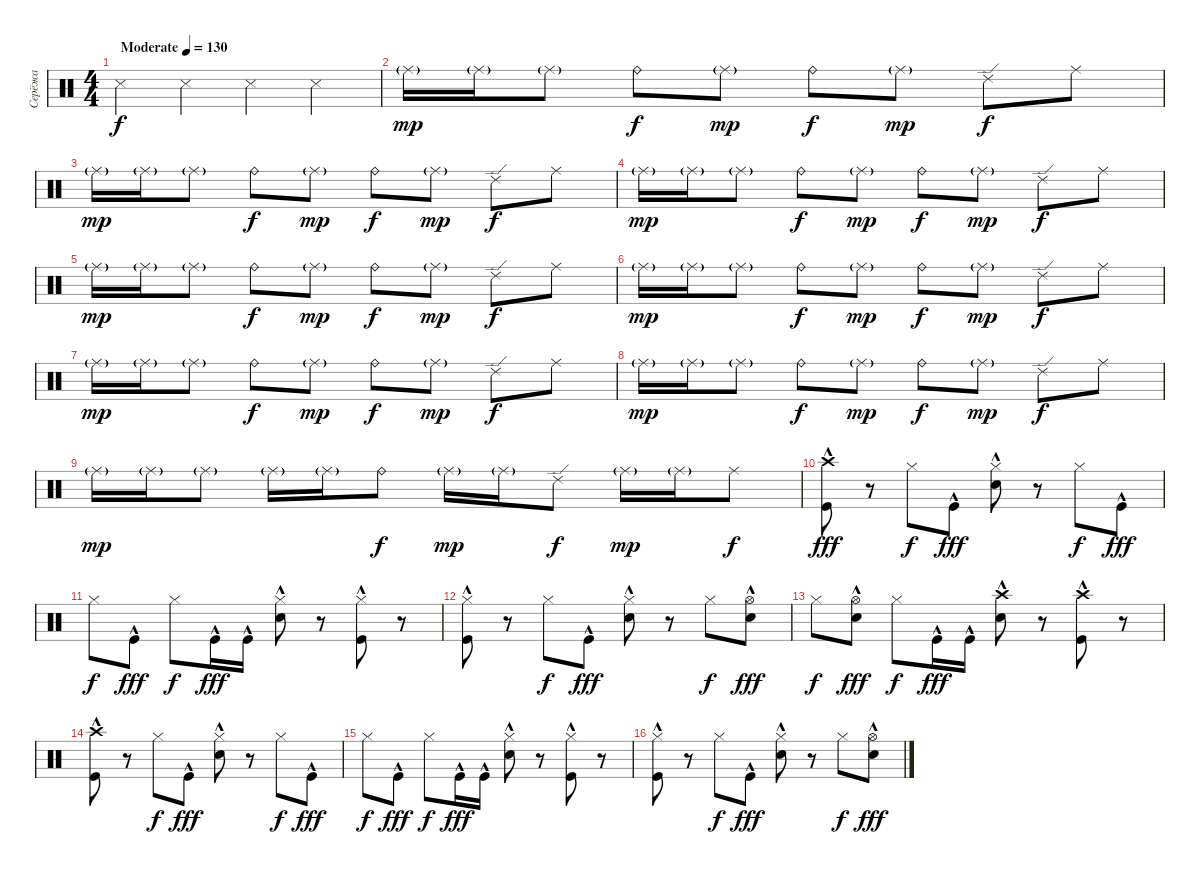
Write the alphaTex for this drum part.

\track ("Серёжа" "Серёжа") {instrument percussion}
\staff {score}
\articulation defaults
\ts (4 4)
\tempo (130 "Moderate")
\clef neutral
\ks c "Snare (side stick) 3".4{dy f} "Snare (side stick) 3".4 "Snare (side stick) 3".4 "Snare (side stick) 3".4
|
"Ride (middle)"{g}.16{dy mp} "Ride (middle)"{g}.16 "Ride (middle)"{g}.8 "Ride (bell)".8{dy f} "Ride (middle)"{g}.8{dy mp} "Ride (bell)".8{dy f} "Ride (middle)"{g}.8{dy mp} "Ride (edge) 2".8{dy f} "Ride (middle)".8 |
"Ride (middle)"{g}.16{dy mp} "Ride (middle)"{g}.16 "Ride (middle)"{g}.8 "Ride (bell)".8{dy f} "Ride (middle)"{g}.8{dy mp} "Ride (bell)".8{dy f} "Ride (middle)"{g}.8{dy mp} "Ride (edge) 2".8{dy f} "Ride (middle)".8 |
"Ride (middle)"{g}.16{dy mp} "Ride (middle)"{g}.16 "Ride (middle)"{g}.8 "Ride (bell)".8{dy f} "Ride (middle)"{g}.8{dy mp} "Ride (bell)".8{dy f} "Ride (middle)"{g}.8{dy mp} "Ride (edge) 2".8{dy f} "Ride (middle)".8 |
"Ride (middle)"{g}.16{dy mp} "Ride (middle)"{g}.16 "Ride (middle)"{g}.8 "Ride (bell)".8{dy f} "Ride (middle)"{g}.8{dy mp} "Ride (bell)".8{dy f} "Ride (middle)"{g}.8{dy mp} "Ride (edge) 2".8{dy f} "Ride (middle)".8 |
"Ride (middle)"{g}.16{dy mp} "Ride (middle)"{g}.16 "Ride (middle)"{g}.8 "Ride (bell)".8{dy f} "Ride (middle)"{g}.8{dy mp} "Ride (bell)".8{dy f} "Ride (middle)"{g}.8{dy mp} "Ride (edge) 2".8{dy f} "Ride (middle)".8 |
"Ride (middle)"{g}.16{dy mp} "Ride (middle)"{g}.16 "Ride (middle)"{g}.8 "Ride (bell)".8{dy f} "Ride (middle)"{g}.8{dy mp} "Ride (bell)".8{dy f} "Ride (middle)"{g}.8{dy mp} "Ride (edge) 2".8{dy f} "Ride (middle)".8 |
"Ride (middle)"{g}.16{dy mp} "Ride (middle)"{g}.16 "Ride (middle)"{g}.8 "Ride (bell)".8{dy f} "Ride (middle)"{g}.8{dy mp} "Ride (bell)".8{dy f} "Ride (middle)"{g}.8{dy mp} "Ride (edge) 2".8{dy f} "Ride (middle)".8 |
"Ride (middle)"{g}.16{dy mp} "Ride (middle)"{g}.16 "Ride (middle)"{g}.8 "Ride (middle)"{g}.16 "Ride (middle)"{g}.16 "Ride (bell)".8{dy f} "Ride (middle)"{g}.16{dy mp} "Ride (middle)"{g}.16 "Ride (edge) 2".8{dy f} "Ride (middle)"{g}.16{dy mp} "Ride (middle)"{g}.16 "Ride (middle)".8{dy f} |
("Crash high (hit)"{hac} "Kick (hit)"{hac}).8{dy fff} r.8 "Hi-Hat (closed)".8{dy f} "Kick (hit)"{hac}.8{dy fff} ("Hi-Hat (closed)" "Snare (hit) 2"{hac}).8 r.8 "Hi-Hat (closed)".8{dy f} "Kick (hit)"{hac}.8{dy fff} |
"Hi-Hat (closed)".8{dy f} "Kick (hit)"{hac}.8{dy fff} "Hi-Hat (closed)".8{dy f} "Kick (hit)"{hac}.16{dy fff} "Kick (hit)"{hac}.16 ("Hi-Hat (closed)" "Snare (hit) 2"{hac}).8 r.8 ("Hi-Hat (closed)" "Kick (hit)"{hac}).8 r.8 |
("Hi-Hat (closed)" "Kick (hit)"{hac}).8 r.8 "Hi-Hat (closed)".8{dy f} "Kick (hit)"{hac}.8{dy fff} ("Hi-Hat (closed)" "Snare (hit) 2"{hac}).8 r.8 "Hi-Hat (closed)".8{dy f} ("Hi-Hat (open)" "Snare (hit) 2"{hac}).8{dy fff} |
"Hi-Hat (closed)".8{dy f} ("Hi-Hat (open)" "Snare (hit) 2"{hac}).8{dy fff} "Hi-Hat (closed)".8{dy f} "Kick (hit)"{hac}.16{dy fff} "Kick (hit)"{hac}.16 ("Crash high (hit)" "Snare (hit) 2"{hac}).8 r.8 ("Crash high (hit)" "Kick (hit)"{hac}).8 r.8 |
("Crash high (hit)"{hac} "Kick (hit)"{hac}).8 r.8 "Hi-Hat (closed)".8{dy f} "Kick (hit)"{hac}.8{dy fff} ("Hi-Hat (closed)" "Snare (hit) 2"{hac}).8 r.8 "Hi-Hat (closed)".8{dy f} "Kick (hit)"{hac}.8{dy fff} |
"Hi-Hat (closed)".8{dy f} "Kick (hit)"{hac}.8{dy fff} "Hi-Hat (closed)".8{dy f} "Kick (hit)"{hac}.16{dy fff} "Kick (hit)"{hac}.16 ("Hi-Hat (closed)" "Snare (hit) 2"{hac}).8 r.8 ("Hi-Hat (closed)" "Kick (hit)"{hac}).8 r.8 |
("Hi-Hat (closed)" "Kick (hit)"{hac}).8 r.8 "Hi-Hat (closed)".8{dy f} "Kick (hit)"{hac}.8{dy fff} ("Hi-Hat (closed)" "Snare (hit) 2"{hac}).8 r.8 "Hi-Hat (closed)".8{dy f} ("Hi-Hat (open)" "Snare (hit) 2"{hac}).8{dy fff}
